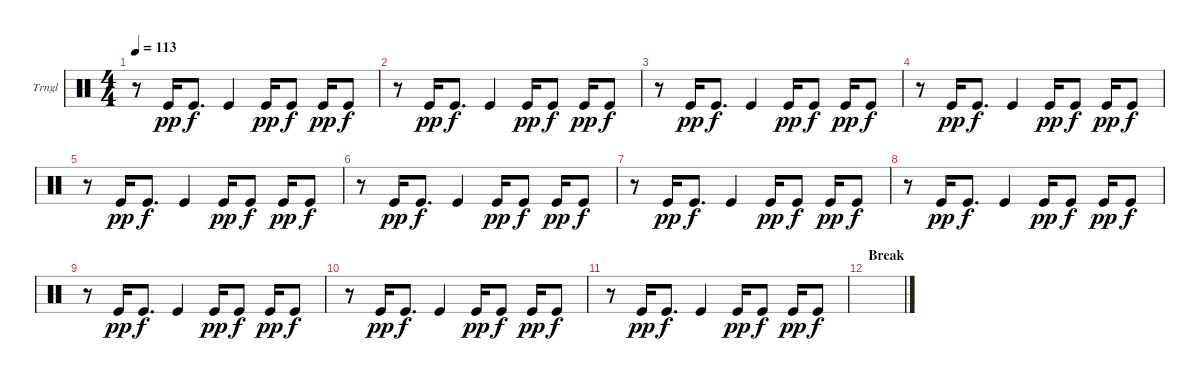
\defaultSystemsLayout 4
\bracketExtendMode groupsimilarinstruments
\firstSystemTrackNameOrientation horizontal
\otherSystemsTrackNameOrientation horizontal
\track ("Triangle" "Trngl") {instrument percussion}
\staff {score}
\articulation defaults
\ts (4 4)
\tempo 113
\clef neutral
\ks c
r.8{dy f} "Kick (hit)".16{dy pp} "Kick (hit)".8{d dy f} "Kick (hit)".4 "Kick (hit)".16{dy pp} "Kick (hit)".8{dy f} "Kick (hit)".16{dy pp} "Kick (hit)".8{dy f} |
r.8 "Kick (hit)".16{dy pp} "Kick (hit)".8{d dy f} "Kick (hit)".4 "Kick (hit)".16{dy pp} "Kick (hit)".8{dy f} "Kick (hit)".16{dy pp} "Kick (hit)".8{dy f} |
r.8 "Kick (hit)".16{dy pp} "Kick (hit)".8{d dy f} "Kick (hit)".4 "Kick (hit)".16{dy pp} "Kick (hit)".8{dy f} "Kick (hit)".16{dy pp} "Kick (hit)".8{dy f} |
r.8 "Kick (hit)".16{dy pp} "Kick (hit)".8{d dy f} "Kick (hit)".4 "Kick (hit)".16{dy pp} "Kick (hit)".8{dy f} "Kick (hit)".16{dy pp} "Kick (hit)".8{dy f} |
r.8 "Kick (hit)".16{dy pp} "Kick (hit)".8{d dy f} "Kick (hit)".4 "Kick (hit)".16{dy pp} "Kick (hit)".8{dy f} "Kick (hit)".16{dy pp} "Kick (hit)".8{dy f} |
r.8 "Kick (hit)".16{dy pp} "Kick (hit)".8{d dy f} "Kick (hit)".4 "Kick (hit)".16{dy pp} "Kick (hit)".8{dy f} "Kick (hit)".16{dy pp} "Kick (hit)".8{dy f} |
r.8 "Kick (hit)".16{dy pp} "Kick (hit)".8{d dy f} "Kick (hit)".4 "Kick (hit)".16{dy pp} "Kick (hit)".8{dy f} "Kick (hit)".16{dy pp} "Kick (hit)".8{dy f} |
r.8 "Kick (hit)".16{dy pp} "Kick (hit)".8{d dy f} "Kick (hit)".4 "Kick (hit)".16{dy pp} "Kick (hit)".8{dy f} "Kick (hit)".16{dy pp} "Kick (hit)".8{dy f} |
r.8 "Kick (hit)".16{dy pp} "Kick (hit)".8{d dy f} "Kick (hit)".4 "Kick (hit)".16{dy pp} "Kick (hit)".8{dy f} "Kick (hit)".16{dy pp} "Kick (hit)".8{dy f} |
r.8 "Kick (hit)".16{dy pp} "Kick (hit)".8{d dy f} "Kick (hit)".4 "Kick (hit)".16{dy pp} "Kick (hit)".8{dy f} "Kick (hit)".16{dy pp} "Kick (hit)".8{dy f} |
r.8 "Kick (hit)".16{dy pp} "Kick (hit)".8{d dy f} "Kick (hit)".4 "Kick (hit)".16{dy pp} "Kick (hit)".8{dy f} "Kick (hit)".16{dy pp} "Kick (hit)".8{dy f} |
\section ("" "Break")
